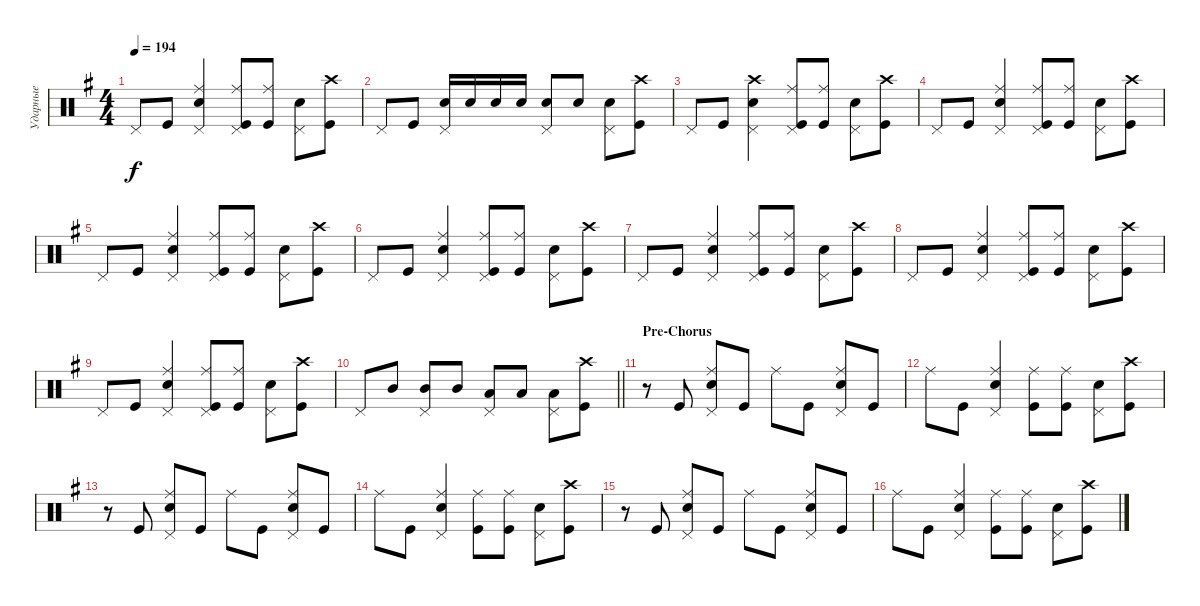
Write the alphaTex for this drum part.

\track ("Ударные" "Ударные") {instrument percussion}
\staff {score}
\articulation defaults
\ts (4 4)
\tempo 194
\clef neutral
\ks eminor "Pedal Hi-Hat (hit)".8{dy f} "Kick (hit)".8
("Snare (hit) 2" "Ride (middle)" "Pedal Hi-Hat (hit)").4 ("Kick (hit)" "Ride (middle)" "Pedal Hi-Hat (hit)").8 ("Ride (middle)" "Kick (hit)").8 ("Snare (hit) 2" "Pedal Hi-Hat (hit)").8 ("Kick (hit)" "Crash high (hit)").8 |
"Pedal Hi-Hat (hit)".8 "Kick (hit)".8 ("Snare (hit) 2" "Pedal Hi-Hat (hit)").16 "Snare (hit) 2".16 "Snare (hit) 2".16 "Snare (hit) 2".16 ("Snare (hit) 2" "Pedal Hi-Hat (hit)").8 "Snare (hit) 2".8 ("Snare (hit) 2" "Pedal Hi-Hat (hit)").8 ("Kick (hit)" "Crash high (hit)").8 |
"Pedal Hi-Hat (hit)".8 "Kick (hit)".8 ("Snare (hit) 2" "Pedal Hi-Hat (hit)" "Crash high (hit)").4 ("Kick (hit)" "Ride (middle)" "Pedal Hi-Hat (hit)").8 ("Ride (middle)" "Kick (hit)").8 ("Snare (hit) 2" "Pedal Hi-Hat (hit)").8 ("Kick (hit)" "Crash high (hit)").8 |
"Pedal Hi-Hat (hit)".8 "Kick (hit)".8 ("Snare (hit) 2" "Ride (middle)" "Pedal Hi-Hat (hit)").4 ("Kick (hit)" "Ride (middle)" "Pedal Hi-Hat (hit)").8 ("Ride (middle)" "Kick (hit)").8 ("Snare (hit) 2" "Pedal Hi-Hat (hit)").8 ("Kick (hit)" "Crash high (hit)").8 |
"Pedal Hi-Hat (hit)".8 "Kick (hit)".8 ("Snare (hit) 2" "Ride (middle)" "Pedal Hi-Hat (hit)").4 ("Kick (hit)" "Ride (middle)" "Pedal Hi-Hat (hit)").8 ("Ride (middle)" "Kick (hit)").8 ("Snare (hit) 2" "Pedal Hi-Hat (hit)").8 ("Kick (hit)" "Crash high (hit)").8 |
"Pedal Hi-Hat (hit)".8 "Kick (hit)".8 ("Snare (hit) 2" "Ride (middle)" "Pedal Hi-Hat (hit)").4 ("Kick (hit)" "Ride (middle)" "Pedal Hi-Hat (hit)").8 ("Ride (middle)" "Kick (hit)").8 ("Snare (hit) 2" "Pedal Hi-Hat (hit)").8 ("Kick (hit)" "Crash high (hit)").8 |
"Pedal Hi-Hat (hit)".8 "Kick (hit)".8 ("Snare (hit) 2" "Ride (middle)" "Pedal Hi-Hat (hit)").4 ("Kick (hit)" "Ride (middle)" "Pedal Hi-Hat (hit)").8 ("Ride (middle)" "Kick (hit)").8 ("Snare (hit) 2" "Pedal Hi-Hat (hit)").8 ("Kick (hit)" "Crash high (hit)").8 |
"Pedal Hi-Hat (hit)".8 "Kick (hit)".8 ("Snare (hit) 2" "Ride (middle)" "Pedal Hi-Hat (hit)").4 ("Kick (hit)" "Ride (middle)" "Pedal Hi-Hat (hit)").8 ("Ride (middle)" "Kick (hit)").8 ("Snare (hit) 2" "Pedal Hi-Hat (hit)").8 ("Kick (hit)" "Crash high (hit)").8 |
"Pedal Hi-Hat (hit)".8 "Kick (hit)".8 ("Snare (hit) 2" "Ride (middle)" "Pedal Hi-Hat (hit)").4 ("Kick (hit)" "Ride (middle)" "Pedal Hi-Hat (hit)").8 ("Ride (middle)" "Kick (hit)").8 ("Snare (hit) 2" "Pedal Hi-Hat (hit)").8 ("Kick (hit)" "Crash high (hit)").8 |
\barLineRight lightlight "Pedal Hi-Hat (hit)".8 "Mid Tom (hit)".8
("Mid Tom (hit)" "Pedal Hi-Hat (hit)").8 "Mid Tom (hit)".8 ("Low Tom (hit)" "Pedal Hi-Hat (hit)").8 "Low Tom (hit)".8 ("Pedal Hi-Hat (hit)" "Low Tom (hit)").8 ("Kick (hit)" "Crash high (hit)").8 |
\section ("" "Pre-Chorus")
r.8 "Kick (hit)".8 ("Snare (hit) 2" "Ride (middle)" "Pedal Hi-Hat (hit)").8 "Kick (hit)".8 "Ride (middle)".8 "Kick (hit)".8 ("Snare (hit) 2" "Ride (middle)" "Pedal Hi-Hat (hit)").8 "Kick (hit)".8 |
"Ride (middle)".8 "Kick (hit)".8 ("Snare (hit) 2" "Ride (middle)" "Pedal Hi-Hat (hit)").4 ("Ride (middle)" "Kick (hit)").8 ("Kick (hit)" "Ride (middle)").8 ("Snare (hit) 2" "Pedal Hi-Hat (hit)").8 ("Kick (hit)" "Crash high (hit)").8 |
r.8 "Kick (hit)".8 ("Snare (hit) 2" "Ride (middle)" "Pedal Hi-Hat (hit)").8 "Kick (hit)".8 "Ride (middle)".8 "Kick (hit)".8 ("Snare (hit) 2" "Ride (middle)" "Pedal Hi-Hat (hit)").8 "Kick (hit)".8 |
"Ride (middle)".8 "Kick (hit)".8 ("Snare (hit) 2" "Ride (middle)" "Pedal Hi-Hat (hit)").4 ("Ride (middle)" "Kick (hit)").8 ("Kick (hit)" "Ride (middle)").8 ("Snare (hit) 2" "Pedal Hi-Hat (hit)").8 ("Kick (hit)" "Crash high (hit)").8 |
r.8 "Kick (hit)".8 ("Snare (hit) 2" "Ride (middle)" "Pedal Hi-Hat (hit)").8 "Kick (hit)".8 "Ride (middle)".8 "Kick (hit)".8 ("Snare (hit) 2" "Ride (middle)" "Pedal Hi-Hat (hit)").8 "Kick (hit)".8 |
"Ride (middle)".8 "Kick (hit)".8 ("Snare (hit) 2" "Ride (middle)" "Pedal Hi-Hat (hit)").4 ("Ride (middle)" "Kick (hit)").8 ("Kick (hit)" "Ride (middle)").8 ("Snare (hit) 2" "Pedal Hi-Hat (hit)").8 ("Kick (hit)" "Crash high (hit)").8
